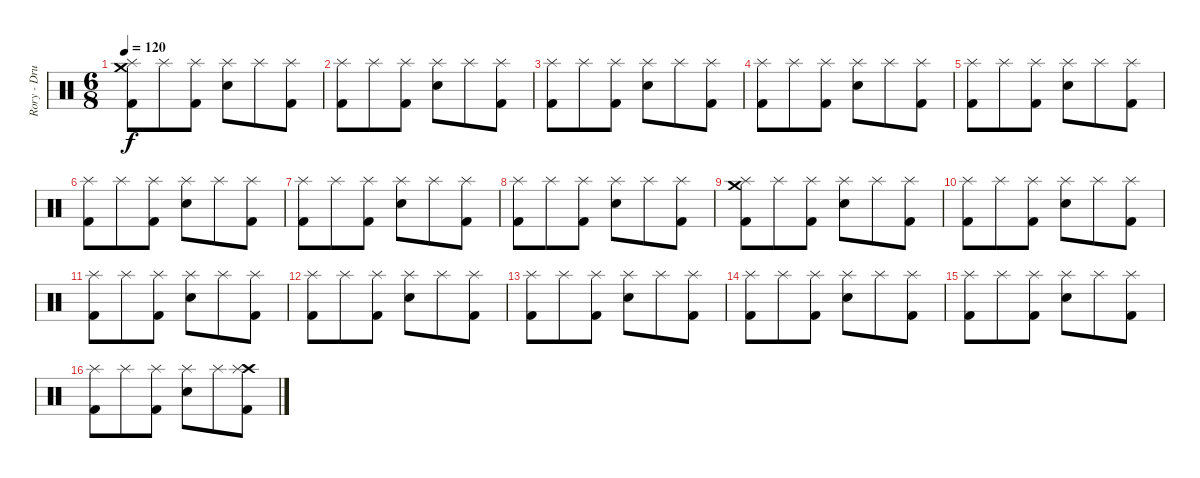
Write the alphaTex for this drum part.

\track ("Rory - Drums" "Rory - Dru") {instrument percussion}
\staff {score}
\articulation defaults
\ts (6 8)
\tempo 120
\clef neutral
\ks c
("Kick (hit) 2" "Splash (hit)" "Crash medium (hit)").8{dy f} "Splash (hit)".8 ("Kick (hit) 2" "Splash (hit)").8 ("Electric Snare (hit)" "Splash (hit)").8 "Splash (hit)".8 ("Kick (hit) 2" "Splash (hit)").8 |
("Kick (hit) 2" "Splash (hit)").8 "Splash (hit)".8 ("Kick (hit) 2" "Splash (hit)").8 ("Electric Snare (hit)" "Splash (hit)").8 "Splash (hit)".8 ("Kick (hit) 2" "Splash (hit)").8 |
("Kick (hit) 2" "Splash (hit)").8 "Splash (hit)".8 ("Kick (hit) 2" "Splash (hit)").8 ("Electric Snare (hit)" "Splash (hit)").8 "Splash (hit)".8 ("Kick (hit) 2" "Splash (hit)").8 |
("Kick (hit) 2" "Splash (hit)").8 "Splash (hit)".8 ("Kick (hit) 2" "Splash (hit)").8 ("Electric Snare (hit)" "Splash (hit)").8 "Splash (hit)".8 ("Kick (hit) 2" "Splash (hit)").8 |
("Kick (hit) 2" "Splash (hit)").8 "Splash (hit)".8 ("Kick (hit) 2" "Splash (hit)").8 ("Electric Snare (hit)" "Splash (hit)").8 "Splash (hit)".8 ("Kick (hit) 2" "Splash (hit)").8 |
("Kick (hit) 2" "Splash (hit)").8 "Splash (hit)".8 ("Kick (hit) 2" "Splash (hit)").8 ("Electric Snare (hit)" "Splash (hit)").8 "Splash (hit)".8 ("Kick (hit) 2" "Splash (hit)").8 |
("Kick (hit) 2" "Splash (hit)").8 "Splash (hit)".8 ("Kick (hit) 2" "Splash (hit)").8 ("Electric Snare (hit)" "Splash (hit)").8 "Splash (hit)".8 ("Kick (hit) 2" "Splash (hit)").8 |
("Kick (hit) 2" "Splash (hit)").8 "Splash (hit)".8 ("Kick (hit) 2" "Splash (hit)").8 ("Electric Snare (hit)" "Splash (hit)").8 "Splash (hit)".8 ("Kick (hit) 2" "Splash (hit)").8 |
("Kick (hit) 2" "Splash (hit)" "Crash medium (hit)").8 "Splash (hit)".8 ("Kick (hit) 2" "Splash (hit)").8 ("Electric Snare (hit)" "Splash (hit)").8 "Splash (hit)".8 ("Kick (hit) 2" "Splash (hit)").8 |
("Kick (hit) 2" "Splash (hit)").8 "Splash (hit)".8 ("Kick (hit) 2" "Splash (hit)").8 ("Electric Snare (hit)" "Splash (hit)").8 "Splash (hit)".8 ("Kick (hit) 2" "Splash (hit)").8 |
("Kick (hit) 2" "Splash (hit)").8 "Splash (hit)".8 ("Kick (hit) 2" "Splash (hit)").8 ("Electric Snare (hit)" "Splash (hit)").8 "Splash (hit)".8 ("Kick (hit) 2" "Splash (hit)").8 |
("Kick (hit) 2" "Splash (hit)").8 "Splash (hit)".8 ("Kick (hit) 2" "Splash (hit)").8 ("Electric Snare (hit)" "Splash (hit)").8 "Splash (hit)".8 ("Kick (hit) 2" "Splash (hit)").8 |
("Kick (hit) 2" "Splash (hit)").8 "Splash (hit)".8 ("Kick (hit) 2" "Splash (hit)").8 ("Electric Snare (hit)" "Splash (hit)").8 "Splash (hit)".8 ("Kick (hit) 2" "Splash (hit)").8 |
("Kick (hit) 2" "Splash (hit)").8 "Splash (hit)".8 ("Kick (hit) 2" "Splash (hit)").8 ("Electric Snare (hit)" "Splash (hit)").8 "Splash (hit)".8 ("Kick (hit) 2" "Splash (hit)").8 |
("Kick (hit) 2" "Splash (hit)").8 "Splash (hit)".8 ("Kick (hit) 2" "Splash (hit)").8 ("Electric Snare (hit)" "Splash (hit)").8 "Splash (hit)".8 ("Kick (hit) 2" "Splash (hit)").8 |
("Kick (hit) 2" "Splash (hit)").8 "Splash (hit)".8 ("Kick (hit) 2" "Splash (hit)").8 ("Electric Snare (hit)" "Splash (hit)").8 "Splash (hit)".8 ("Kick (hit) 2" "Crash high (hit)" "Splash (hit)").8
